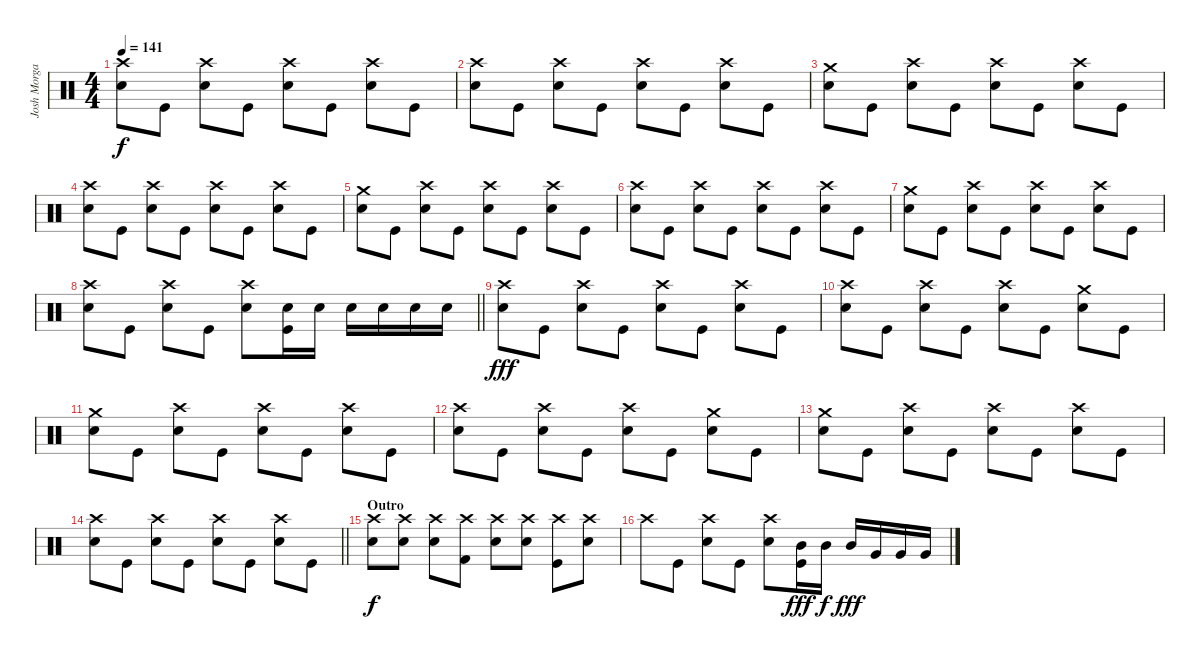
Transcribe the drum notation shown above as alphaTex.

\track ("Josh Morgan" "Josh Morga") {instrument percussion}
\staff {score}
\articulation defaults
\ts (4 4)
\tempo 141
\clef neutral
\ks c
("Crash high (hit)" "Electric Snare (hit)").8{dy f} "Kick (hit)".8 ("Crash high (hit)" "Electric Snare (hit)").8 "Kick (hit)".8 ("Crash high (hit)" "Electric Snare (hit)").8 "Kick (hit)".8 ("Crash high (hit)" "Electric Snare (hit)").8 "Kick (hit)".8 |
("Crash high (hit)" "Electric Snare (hit)").8 "Kick (hit)".8 ("Crash high (hit)" "Electric Snare (hit)").8 "Kick (hit)".8 ("Crash high (hit)" "Electric Snare (hit)").8 "Kick (hit)".8 ("Crash high (hit)" "Electric Snare (hit)").8 "Kick (hit)".8 |
("Crash medium (hit)" "Electric Snare (hit)").8 "Kick (hit)".8 ("Crash high (hit)" "Electric Snare (hit)").8 "Kick (hit)".8 ("Crash high (hit)" "Electric Snare (hit)").8 "Kick (hit)".8 ("Crash high (hit)" "Electric Snare (hit)").8 "Kick (hit)".8 |
("Crash high (hit)" "Electric Snare (hit)").8 "Kick (hit)".8 ("Crash high (hit)" "Electric Snare (hit)").8 "Kick (hit)".8 ("Crash high (hit)" "Electric Snare (hit)").8 "Kick (hit)".8 ("Crash high (hit)" "Electric Snare (hit)").8 "Kick (hit)".8 |
("Crash medium (hit)" "Electric Snare (hit)").8 "Kick (hit)".8 ("Crash high (hit)" "Electric Snare (hit)").8 "Kick (hit)".8 ("Crash high (hit)" "Electric Snare (hit)").8 "Kick (hit)".8 ("Crash high (hit)" "Electric Snare (hit)").8 "Kick (hit)".8 |
("Crash high (hit)" "Electric Snare (hit)").8 "Kick (hit)".8 ("Crash high (hit)" "Electric Snare (hit)").8 "Kick (hit)".8 ("Crash high (hit)" "Electric Snare (hit)").8 "Kick (hit)".8 ("Crash high (hit)" "Electric Snare (hit)").8 "Kick (hit)".8 |
("Crash medium (hit)" "Electric Snare (hit)").8 "Kick (hit)".8 ("Crash high (hit)" "Electric Snare (hit)").8 "Kick (hit)".8 ("Crash high (hit)" "Electric Snare (hit)").8 "Kick (hit)".8 ("Crash high (hit)" "Electric Snare (hit)").8 "Kick (hit)".8 |
\barLineRight lightlight
("Crash high (hit)" "Electric Snare (hit)").8 "Kick (hit)".8 ("Crash high (hit)" "Electric Snare (hit)").8 "Kick (hit)".8 ("Crash high (hit)" "Electric Snare (hit)").8 ("Electric Snare (hit)" "Kick (hit)").16 "Electric Snare (hit)".16 "Electric Snare (hit)".16 "Electric Snare (hit)".16 "Electric Snare (hit)".16 "Electric Snare (hit)".16 |
("Crash high (hit)" "Electric Snare (hit)").8{dy fff} "Kick (hit)".8 ("Crash high (hit)" "Electric Snare (hit)").8 "Kick (hit)".8 ("Crash high (hit)" "Electric Snare (hit)").8 "Kick (hit)".8 ("Crash high (hit)" "Electric Snare (hit)").8 "Kick (hit)".8 |
("Crash high (hit)" "Electric Snare (hit)").8 "Kick (hit)".8 ("Crash high (hit)" "Electric Snare (hit)").8 "Kick (hit)".8 ("Crash high (hit)" "Electric Snare (hit)").8 "Kick (hit)".8 ("Crash medium (hit)" "Electric Snare (hit)").8 "Kick (hit)".8 |
("Crash medium (hit)" "Electric Snare (hit)").8 "Kick (hit)".8 ("Crash high (hit)" "Electric Snare (hit)").8 "Kick (hit)".8 ("Crash high (hit)" "Electric Snare (hit)").8 "Kick (hit)".8 ("Crash high (hit)" "Electric Snare (hit)").8 "Kick (hit)".8 |
("Crash high (hit)" "Electric Snare (hit)").8 "Kick (hit)".8 ("Crash high (hit)" "Electric Snare (hit)").8 "Kick (hit)".8 ("Crash high (hit)" "Electric Snare (hit)").8 "Kick (hit)".8 ("Crash medium (hit)" "Electric Snare (hit)").8 "Kick (hit)".8 |
("Crash medium (hit)" "Electric Snare (hit)").8 "Kick (hit)".8 ("Crash high (hit)" "Electric Snare (hit)").8 "Kick (hit)".8 ("Crash high (hit)" "Electric Snare (hit)").8 "Kick (hit)".8 ("Crash high (hit)" "Electric Snare (hit)").8 "Kick (hit)".8 |
\barLineRight lightlight
("Crash high (hit)" "Electric Snare (hit)").8 "Kick (hit)".8 ("Crash high (hit)" "Electric Snare (hit)").8 "Kick (hit)".8 ("Crash high (hit)" "Electric Snare (hit)").8 "Kick (hit)".8 ("Crash high (hit)" "Electric Snare (hit)").8 "Kick (hit)".8 |
\section ("" "Outro")
("Crash high (hit)" "Electric Snare (hit)").8{dy f} ("Crash high (hit)" "Electric Snare (hit)").8 ("Crash high (hit)" "Electric Snare (hit)").8 ("Crash high (hit)" "Kick (hit) 2").8 ("Crash high (hit)" "Electric Snare (hit)").8 ("Crash high (hit)" "Electric Snare (hit)").8 ("Crash high (hit)" "Kick (hit)").8 ("Crash high (hit)" "Electric Snare (hit)").8 |
"Crash high (hit)".8 "Kick (hit)".8 ("Crash high (hit)" "Electric Snare (hit)").8 "Kick (hit)".8 ("Crash high (hit)" "Electric Snare (hit)").8 ("Mid Tom (hit)" "Kick (hit)").16{dy fff} "Mid Tom (hit)".16{dy f} "Mid Tom (hit)".16{dy fff} "Very Low Tom (hit)".16 "Very Low Tom (hit)".16 "Very Low Tom (hit)".16
